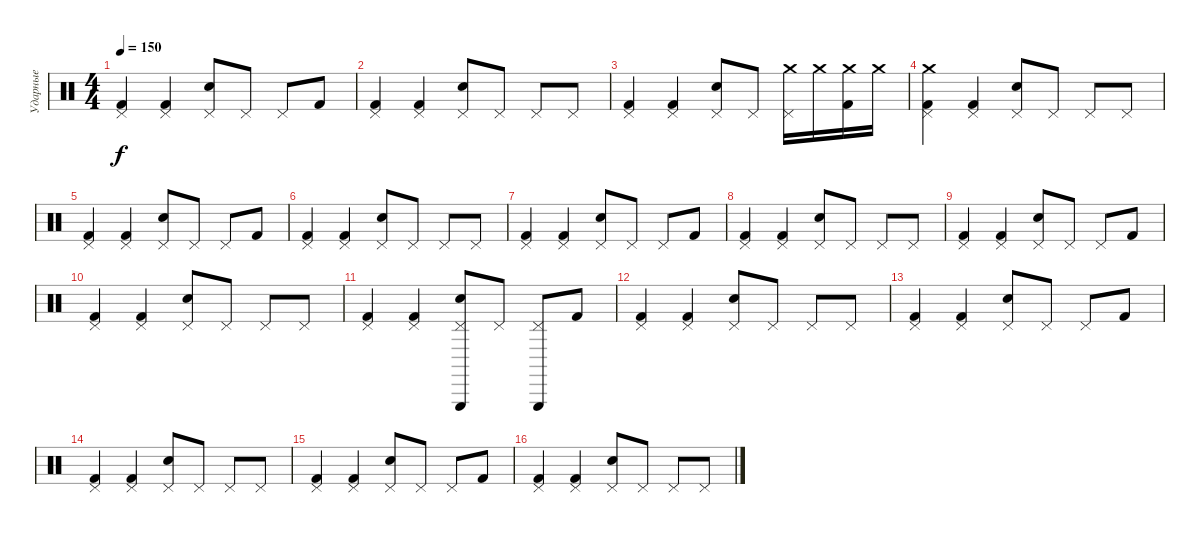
\track ("Ударные" "Ударные") {instrument percussion}
\staff {score}
\articulation defaults
\ts (4 4)
\tempo 150
\clef neutral
\ks c
("Pedal Hi-Hat (hit)" "Kick (hit) 2").4{dy f} ("Pedal Hi-Hat (hit)" "Kick (hit) 2").4 ("Pedal Hi-Hat (hit)" "Snare (hit) 2").8 "Pedal Hi-Hat (hit)".8 "Pedal Hi-Hat (hit)".8 "Kick (hit) 2".8 |
("Pedal Hi-Hat (hit)" "Kick (hit) 2").4 ("Pedal Hi-Hat (hit)" "Kick (hit) 2").4 ("Pedal Hi-Hat (hit)" "Snare (hit) 2").8 "Pedal Hi-Hat (hit)".8 "Pedal Hi-Hat (hit)".8 "Pedal Hi-Hat (hit)".8 |
("Pedal Hi-Hat (hit)" "Kick (hit) 2").4 ("Pedal Hi-Hat (hit)" "Kick (hit) 2").4 ("Pedal Hi-Hat (hit)" "Snare (hit) 2").8 "Pedal Hi-Hat (hit)".8 ("Crash medium (hit)" "Pedal Hi-Hat (hit)").16 "Crash medium (hit)".16 ("Crash medium (hit)" "Kick (hit) 2").16 "Crash medium (hit)".16 |
("Crash medium (hit)" "Pedal Hi-Hat (hit)" "Kick (hit) 2").4 ("Pedal Hi-Hat (hit)" "Kick (hit) 2").4 ("Pedal Hi-Hat (hit)" "Snare (hit) 2").8 "Pedal Hi-Hat (hit)".8 "Pedal Hi-Hat (hit)".8 "Pedal Hi-Hat (hit)".8 |
("Pedal Hi-Hat (hit)" "Kick (hit) 2").4 ("Pedal Hi-Hat (hit)" "Kick (hit) 2").4 ("Pedal Hi-Hat (hit)" "Snare (hit) 2").8 "Pedal Hi-Hat (hit)".8 "Pedal Hi-Hat (hit)".8 "Kick (hit) 2".8 |
("Pedal Hi-Hat (hit)" "Kick (hit) 2").4 ("Pedal Hi-Hat (hit)" "Kick (hit) 2").4 ("Pedal Hi-Hat (hit)" "Snare (hit) 2").8 "Pedal Hi-Hat (hit)".8 "Pedal Hi-Hat (hit)".8 "Pedal Hi-Hat (hit)".8 |
("Pedal Hi-Hat (hit)" "Kick (hit) 2").4 ("Pedal Hi-Hat (hit)" "Kick (hit) 2").4 ("Pedal Hi-Hat (hit)" "Snare (hit) 2").8 "Pedal Hi-Hat (hit)".8 "Pedal Hi-Hat (hit)".8 "Kick (hit) 2".8 |
("Pedal Hi-Hat (hit)" "Kick (hit) 2").4 ("Pedal Hi-Hat (hit)" "Kick (hit) 2").4 ("Pedal Hi-Hat (hit)" "Snare (hit) 2").8 "Pedal Hi-Hat (hit)".8 "Pedal Hi-Hat (hit)".8 "Pedal Hi-Hat (hit)".8 |
("Pedal Hi-Hat (hit)" "Kick (hit) 2").4 ("Pedal Hi-Hat (hit)" "Kick (hit) 2").4 ("Pedal Hi-Hat (hit)" "Snare (hit) 2").8 "Pedal Hi-Hat (hit)".8 "Pedal Hi-Hat (hit)".8 "Kick (hit) 2".8 |
("Pedal Hi-Hat (hit)" "Kick (hit) 2").4 ("Pedal Hi-Hat (hit)" "Kick (hit) 2").4 ("Pedal Hi-Hat (hit)" "Snare (hit) 2").8 "Pedal Hi-Hat (hit)".8 "Pedal Hi-Hat (hit)".8 "Pedal Hi-Hat (hit)".8 |
("Pedal Hi-Hat (hit)" "Kick (hit) 2").4 ("Pedal Hi-Hat (hit)" "Kick (hit) 2").4 ("Triangle (hit)" "Pedal Hi-Hat (hit)" "Snare (hit) 2").8 "Pedal Hi-Hat (hit)".8 ("Triangle (hit)" "Pedal Hi-Hat (hit)").8 "Kick (hit) 2".8 |
("Pedal Hi-Hat (hit)" "Kick (hit) 2").4 ("Pedal Hi-Hat (hit)" "Kick (hit) 2").4 ("Pedal Hi-Hat (hit)" "Snare (hit) 2").8 "Pedal Hi-Hat (hit)".8 "Pedal Hi-Hat (hit)".8 "Pedal Hi-Hat (hit)".8 |
("Pedal Hi-Hat (hit)" "Kick (hit) 2").4 ("Pedal Hi-Hat (hit)" "Kick (hit) 2").4 ("Pedal Hi-Hat (hit)" "Snare (hit) 2").8 "Pedal Hi-Hat (hit)".8 "Pedal Hi-Hat (hit)".8 "Kick (hit) 2".8 |
("Pedal Hi-Hat (hit)" "Kick (hit) 2").4 ("Pedal Hi-Hat (hit)" "Kick (hit) 2").4 ("Pedal Hi-Hat (hit)" "Snare (hit) 2").8 "Pedal Hi-Hat (hit)".8 "Pedal Hi-Hat (hit)".8 "Pedal Hi-Hat (hit)".8 |
("Pedal Hi-Hat (hit)" "Kick (hit) 2").4 ("Pedal Hi-Hat (hit)" "Kick (hit) 2").4 ("Pedal Hi-Hat (hit)" "Snare (hit) 2").8 "Pedal Hi-Hat (hit)".8 "Pedal Hi-Hat (hit)".8 "Kick (hit) 2".8 |
("Pedal Hi-Hat (hit)" "Kick (hit) 2").4 ("Pedal Hi-Hat (hit)" "Kick (hit) 2").4 ("Pedal Hi-Hat (hit)" "Snare (hit) 2").8 "Pedal Hi-Hat (hit)".8 "Pedal Hi-Hat (hit)".8 "Pedal Hi-Hat (hit)".8
